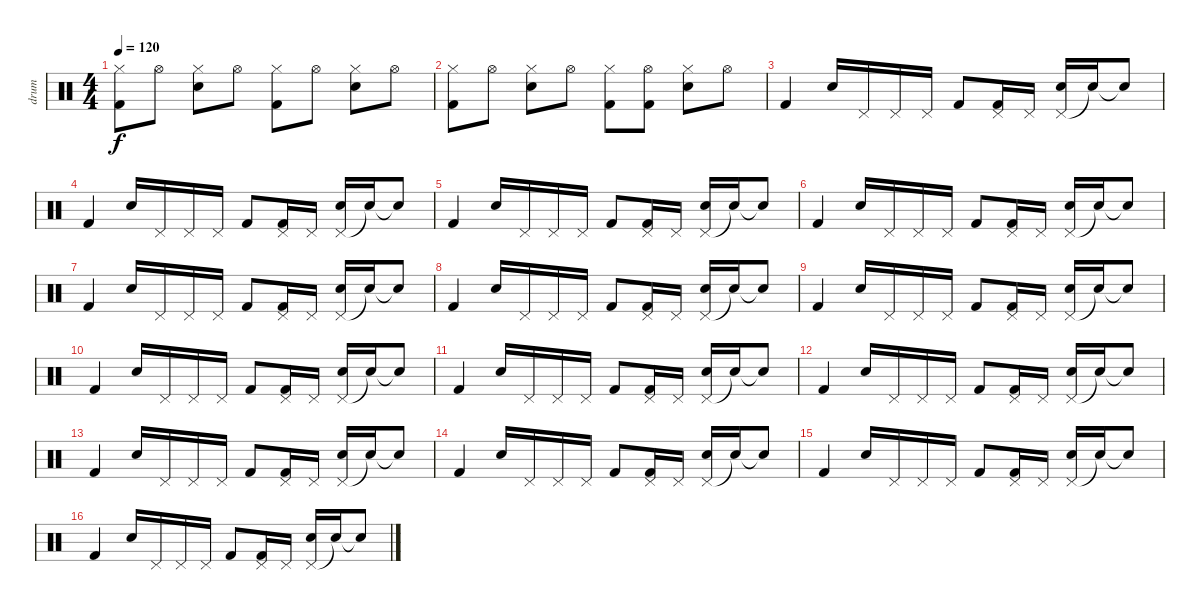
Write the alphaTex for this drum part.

\track ("drum" "drum") {instrument percussion}
\staff {score}
\articulation defaults
\ts (4 4)
\tempo 120
\clef neutral
\ks c
("Hi-Hat (closed)" "Kick (hit) 2").8{dy f} "Hi-Hat (open)".8 ("Hi-Hat (closed)" "Electric Snare (hit)").8 "Hi-Hat (open)".8 ("Hi-Hat (closed)" "Kick (hit) 2").8 "Hi-Hat (open)".8 ("Hi-Hat (closed)" "Electric Snare (hit)").8 "Hi-Hat (open)".8 |
("Hi-Hat (closed)" "Kick (hit) 2").8 "Hi-Hat (open)".8 ("Hi-Hat (closed)" "Electric Snare (hit)").8 "Hi-Hat (open)".8 ("Hi-Hat (closed)" "Kick (hit) 2").8 ("Hi-Hat (open)" "Kick (hit) 2").8 ("Hi-Hat (closed)" "Electric Snare (hit)").8 "Hi-Hat (open)".8 |
"Kick (hit) 2".4 "Electric Snare (hit)".16 "Pedal Hi-Hat (hit)".16 "Pedal Hi-Hat (hit)".16 "Pedal Hi-Hat (hit)".16 "Kick (hit) 2".8 ("Pedal Hi-Hat (hit)" "Kick (hit) 2").16 "Pedal Hi-Hat (hit)".16 ("Pedal Hi-Hat (hit)" "Electric Snare (hit)").16 "Snare (hit)"{t}.16 "Snare (hit)"{t}.8 |
"Kick (hit) 2".4 "Electric Snare (hit)".16 "Pedal Hi-Hat (hit)".16 "Pedal Hi-Hat (hit)".16 "Pedal Hi-Hat (hit)".16 "Kick (hit) 2".8 ("Pedal Hi-Hat (hit)" "Kick (hit) 2").16 "Pedal Hi-Hat (hit)".16 ("Pedal Hi-Hat (hit)" "Electric Snare (hit)").16 "Snare (hit)"{t}.16 "Snare (hit)"{t}.8 |
"Kick (hit) 2".4 "Electric Snare (hit)".16 "Pedal Hi-Hat (hit)".16 "Pedal Hi-Hat (hit)".16 "Pedal Hi-Hat (hit)".16 "Kick (hit) 2".8 ("Pedal Hi-Hat (hit)" "Kick (hit) 2").16 "Pedal Hi-Hat (hit)".16 ("Pedal Hi-Hat (hit)" "Electric Snare (hit)").16 "Snare (hit)"{t}.16 "Snare (hit)"{t}.8 |
"Kick (hit) 2".4 "Electric Snare (hit)".16 "Pedal Hi-Hat (hit)".16 "Pedal Hi-Hat (hit)".16 "Pedal Hi-Hat (hit)".16 "Kick (hit) 2".8 ("Pedal Hi-Hat (hit)" "Kick (hit) 2").16 "Pedal Hi-Hat (hit)".16 ("Pedal Hi-Hat (hit)" "Electric Snare (hit)").16 "Snare (hit)"{t}.16 "Snare (hit)"{t}.8 |
"Kick (hit) 2".4 "Electric Snare (hit)".16 "Pedal Hi-Hat (hit)".16 "Pedal Hi-Hat (hit)".16 "Pedal Hi-Hat (hit)".16 "Kick (hit) 2".8 ("Pedal Hi-Hat (hit)" "Kick (hit) 2").16 "Pedal Hi-Hat (hit)".16 ("Pedal Hi-Hat (hit)" "Electric Snare (hit)").16 "Snare (hit)"{t}.16 "Snare (hit)"{t}.8 |
"Kick (hit) 2".4 "Electric Snare (hit)".16 "Pedal Hi-Hat (hit)".16 "Pedal Hi-Hat (hit)".16 "Pedal Hi-Hat (hit)".16 "Kick (hit) 2".8 ("Pedal Hi-Hat (hit)" "Kick (hit) 2").16 "Pedal Hi-Hat (hit)".16 ("Pedal Hi-Hat (hit)" "Electric Snare (hit)").16 "Snare (hit)"{t}.16 "Snare (hit)"{t}.8 |
"Kick (hit) 2".4 "Electric Snare (hit)".16 "Pedal Hi-Hat (hit)".16 "Pedal Hi-Hat (hit)".16 "Pedal Hi-Hat (hit)".16 "Kick (hit) 2".8 ("Pedal Hi-Hat (hit)" "Kick (hit) 2").16 "Pedal Hi-Hat (hit)".16 ("Pedal Hi-Hat (hit)" "Electric Snare (hit)").16 "Snare (hit)"{t}.16 "Snare (hit)"{t}.8 |
"Kick (hit) 2".4 "Electric Snare (hit)".16 "Pedal Hi-Hat (hit)".16 "Pedal Hi-Hat (hit)".16 "Pedal Hi-Hat (hit)".16 "Kick (hit) 2".8 ("Pedal Hi-Hat (hit)" "Kick (hit) 2").16 "Pedal Hi-Hat (hit)".16 ("Pedal Hi-Hat (hit)" "Electric Snare (hit)").16 "Snare (hit)"{t}.16 "Snare (hit)"{t}.8 |
"Kick (hit) 2".4 "Electric Snare (hit)".16 "Pedal Hi-Hat (hit)".16 "Pedal Hi-Hat (hit)".16 "Pedal Hi-Hat (hit)".16 "Kick (hit) 2".8 ("Pedal Hi-Hat (hit)" "Kick (hit) 2").16 "Pedal Hi-Hat (hit)".16 ("Pedal Hi-Hat (hit)" "Electric Snare (hit)").16 "Snare (hit)"{t}.16 "Snare (hit)"{t}.8 |
"Kick (hit) 2".4 "Electric Snare (hit)".16 "Pedal Hi-Hat (hit)".16 "Pedal Hi-Hat (hit)".16 "Pedal Hi-Hat (hit)".16 "Kick (hit) 2".8 ("Pedal Hi-Hat (hit)" "Kick (hit) 2").16 "Pedal Hi-Hat (hit)".16 ("Pedal Hi-Hat (hit)" "Electric Snare (hit)").16 "Snare (hit)"{t}.16 "Snare (hit)"{t}.8 |
"Kick (hit) 2".4 "Electric Snare (hit)".16 "Pedal Hi-Hat (hit)".16 "Pedal Hi-Hat (hit)".16 "Pedal Hi-Hat (hit)".16 "Kick (hit) 2".8 ("Pedal Hi-Hat (hit)" "Kick (hit) 2").16 "Pedal Hi-Hat (hit)".16 ("Pedal Hi-Hat (hit)" "Electric Snare (hit)").16 "Snare (hit)"{t}.16 "Snare (hit)"{t}.8 |
"Kick (hit) 2".4 "Electric Snare (hit)".16 "Pedal Hi-Hat (hit)".16 "Pedal Hi-Hat (hit)".16 "Pedal Hi-Hat (hit)".16 "Kick (hit) 2".8 ("Pedal Hi-Hat (hit)" "Kick (hit) 2").16 "Pedal Hi-Hat (hit)".16 ("Pedal Hi-Hat (hit)" "Electric Snare (hit)").16 "Snare (hit)"{t}.16 "Snare (hit)"{t}.8 |
"Kick (hit) 2".4 "Electric Snare (hit)".16 "Pedal Hi-Hat (hit)".16 "Pedal Hi-Hat (hit)".16 "Pedal Hi-Hat (hit)".16 "Kick (hit) 2".8 ("Pedal Hi-Hat (hit)" "Kick (hit) 2").16 "Pedal Hi-Hat (hit)".16 ("Pedal Hi-Hat (hit)" "Electric Snare (hit)").16 "Snare (hit)"{t}.16 "Snare (hit)"{t}.8 |
"Kick (hit) 2".4 "Electric Snare (hit)".16 "Pedal Hi-Hat (hit)".16 "Pedal Hi-Hat (hit)".16 "Pedal Hi-Hat (hit)".16 "Kick (hit) 2".8 ("Pedal Hi-Hat (hit)" "Kick (hit) 2").16 "Pedal Hi-Hat (hit)".16 ("Pedal Hi-Hat (hit)" "Electric Snare (hit)").16 "Snare (hit)"{t}.16 "Snare (hit)"{t}.8
